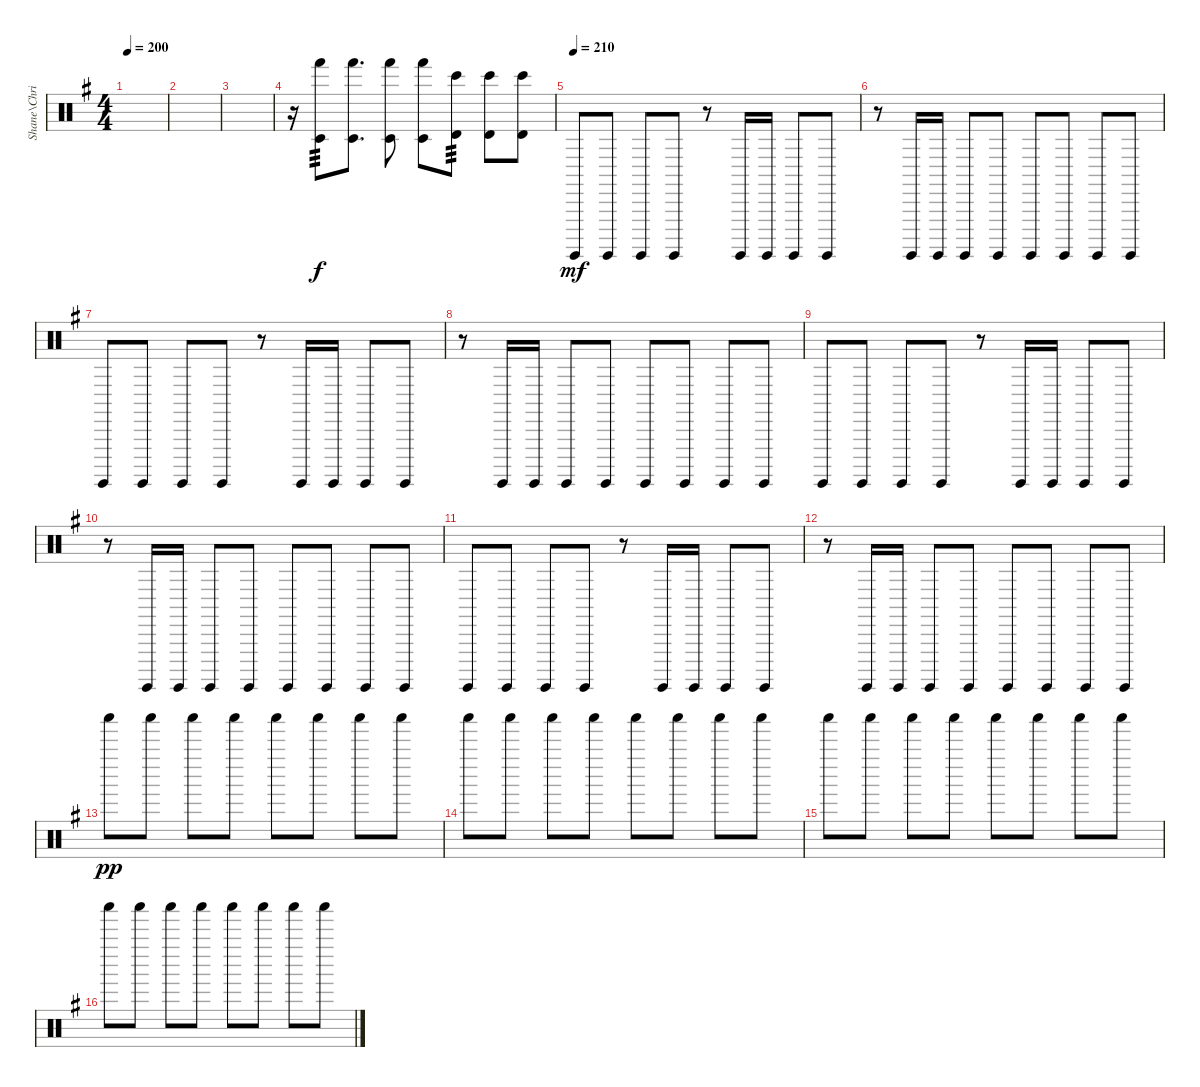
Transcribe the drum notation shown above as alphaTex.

\track ("Shane\\Chris - Percussion" "Shane\\Chri") {instrument percussion}
\staff {score}
\articulation defaults
\ts (4 4)
\tempo 200
\clef neutral
\ks g
|
|
|
r.16 ("Hand (hit)" "Timbale low (hit)").8{tp 3 dy f} ("Hand (hit)" "Timbale low (hit)").8{d} ("Hand (hit)" "Timbale low (hit)").8 ("Hand (hit)" "Timbale low (hit)").8 ("Bongo High (hit)" "Timbale high (hit)").8{tp 3} ("Bongo High (hit)" "Timbale high (hit)").8 ("Bongo High (hit)" "Timbale high (hit)").8 |
\tempo (210)
"Surdo (hit)".8{dy mf} "Surdo (hit)".8 "Surdo (hit)".8 "Surdo (hit)".8 r.8 "Surdo (hit)".16 "Surdo (hit)".16 "Surdo (hit)".8 "Surdo (hit)".8 |
r.8 "Surdo (hit)".16 "Surdo (hit)".16 "Surdo (hit)".8 "Surdo (hit)".8 "Surdo (hit)".8 "Surdo (hit)".8 "Surdo (hit)".8 "Surdo (hit)".8 |
"Surdo (hit)".8 "Surdo (hit)".8 "Surdo (hit)".8 "Surdo (hit)".8 r.8 "Surdo (hit)".16 "Surdo (hit)".16 "Surdo (hit)".8 "Surdo (hit)".8 |
r.8 "Surdo (hit)".16 "Surdo (hit)".16 "Surdo (hit)".8 "Surdo (hit)".8 "Surdo (hit)".8 "Surdo (hit)".8 "Surdo (hit)".8 "Surdo (hit)".8 |
"Surdo (hit)".8 "Surdo (hit)".8 "Surdo (hit)".8 "Surdo (hit)".8 r.8 "Surdo (hit)".16 "Surdo (hit)".16 "Surdo (hit)".8 "Surdo (hit)".8 |
r.8 "Surdo (hit)".16 "Surdo (hit)".16 "Surdo (hit)".8 "Surdo (hit)".8 "Surdo (hit)".8 "Surdo (hit)".8 "Surdo (hit)".8 "Surdo (hit)".8 |
"Surdo (hit)".8 "Surdo (hit)".8 "Surdo (hit)".8 "Surdo (hit)".8 r.8 "Surdo (hit)".16 "Surdo (hit)".16 "Surdo (hit)".8 "Surdo (hit)".8 |
r.8 "Surdo (hit)".16 "Surdo (hit)".16 "Surdo (hit)".8 "Surdo (hit)".8 "Surdo (hit)".8 "Surdo (hit)".8 "Surdo (hit)".8 "Surdo (hit)".8 |
"Shaker (hit)".8{dy pp} "Shaker (hit)".8 "Shaker (hit)".8 "Shaker (hit)".8 "Shaker (hit)".8 "Shaker (hit)".8 "Shaker (hit)".8 "Shaker (hit)".8 |
"Shaker (hit)".8 "Shaker (hit)".8 "Shaker (hit)".8 "Shaker (hit)".8 "Shaker (hit)".8 "Shaker (hit)".8 "Shaker (hit)".8 "Shaker (hit)".8 |
"Shaker (hit)".8 "Shaker (hit)".8 "Shaker (hit)".8 "Shaker (hit)".8 "Shaker (hit)".8 "Shaker (hit)".8 "Shaker (hit)".8 "Shaker (hit)".8 |
"Shaker (hit)".8 "Shaker (hit)".8 "Shaker (hit)".8 "Shaker (hit)".8 "Shaker (hit)".8 "Shaker (hit)".8 "Shaker (hit)".8 "Shaker (hit)".8
